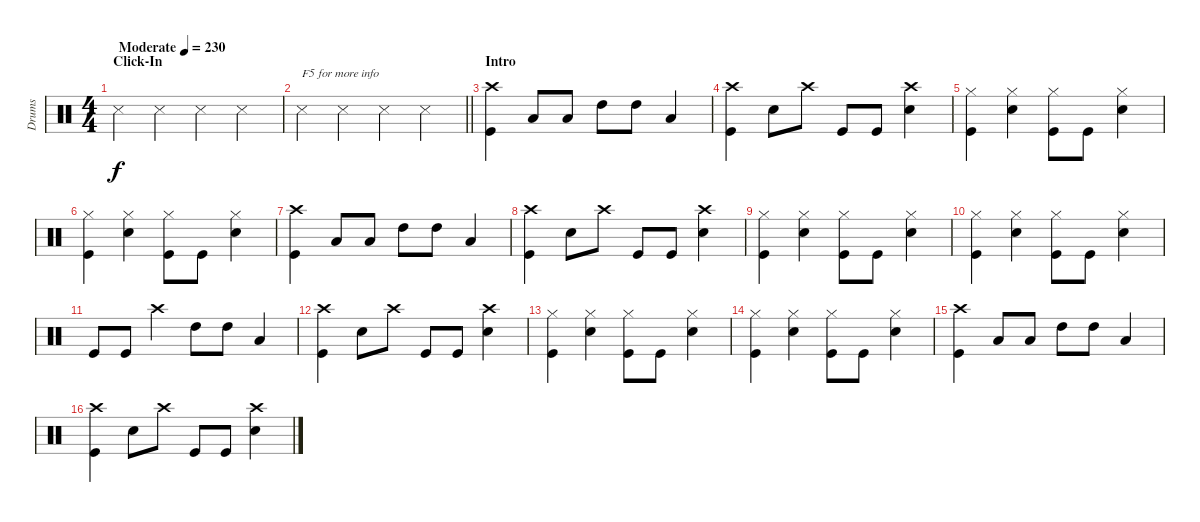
\track ("Drums" "Drums") {instrument percussion}
\staff {score}
\articulation defaults
\ts (4 4)
\section ("" "Click-In")
\tempo (230 "Moderate")
\clef neutral
\ks c "Snare (side stick) 3".4{dy f} "Snare (side stick) 3".4 "Snare (side stick) 3".4 "Snare (side stick) 3".4
|
\barLineRight lightlight "Snare (side stick) 3".4{txt "F5 for more info"} "Snare (side stick) 3".4 "Snare (side stick) 3".4 "Snare (side stick) 3".4
|
\section ("" "Intro")
("Crash high (hit)" "Kick (hit)").4 "Low Tom (hit)".8 "Low Tom (hit)".8 "High Tom (hit)".8 "High Tom (hit)".8 "Low Floor Tom (hit)".4 |
("Crash high (hit)" "Kick (hit)").4 "Snare (hit) 2".8 "Crash high (hit)".8 "Kick (hit)".8 "Kick (hit)".8 ("Crash high (hit)" "Snare (hit) 2").4 |
("Hi-Hat (closed)" "Kick (hit)").4 ("Hi-Hat (closed)" "Snare (hit) 2").4 ("Hi-Hat (closed)" "Kick (hit)").8 "Kick (hit)".8 ("Hi-Hat (closed)" "Snare (hit) 2").4 |
("Hi-Hat (closed)" "Kick (hit)").4 ("Hi-Hat (closed)" "Snare (hit) 2").4 ("Hi-Hat (closed)" "Kick (hit)").8 "Kick (hit)".8 ("Hi-Hat (closed)" "Snare (hit) 2").4 |
("Crash high (hit)" "Kick (hit)").4 "Low Tom (hit)".8 "Low Tom (hit)".8 "High Tom (hit)".8 "High Tom (hit)".8 "Low Floor Tom (hit)".4 |
("Crash high (hit)" "Kick (hit)").4 "Snare (hit) 2".8 "Crash high (hit)".8 "Kick (hit)".8 "Kick (hit)".8 ("Crash high (hit)" "Snare (hit) 2").4 |
("Hi-Hat (closed)" "Kick (hit)").4 ("Hi-Hat (closed)" "Snare (hit) 2").4 ("Hi-Hat (closed)" "Kick (hit)").8 "Kick (hit)".8 ("Hi-Hat (closed)" "Snare (hit) 2").4 |
("Hi-Hat (closed)" "Kick (hit)").4 ("Hi-Hat (closed)" "Snare (hit) 2").4 ("Hi-Hat (closed)" "Kick (hit)").8 "Kick (hit)".8 ("Hi-Hat (closed)" "Snare (hit) 2").4 |
"Kick (hit)".8 "Kick (hit)".8 "Crash high (hit)".4 "High Tom (hit)".8 "High Tom (hit)".8 "Low Floor Tom (hit)".4 |
("Crash high (hit)" "Kick (hit)").4 "Snare (hit) 2".8 "Crash high (hit)".8 "Kick (hit)".8 "Kick (hit)".8 ("Crash high (hit)" "Snare (hit) 2").4 |
("Hi-Hat (closed)" "Kick (hit)").4 ("Hi-Hat (closed)" "Snare (hit) 2").4 ("Hi-Hat (closed)" "Kick (hit)").8 "Kick (hit)".8 ("Hi-Hat (closed)" "Snare (hit) 2").4 |
("Hi-Hat (closed)" "Kick (hit)").4 ("Hi-Hat (closed)" "Snare (hit) 2").4 ("Hi-Hat (closed)" "Kick (hit)").8 "Kick (hit)".8 ("Hi-Hat (closed)" "Snare (hit) 2").4 |
("Crash high (hit)" "Kick (hit)").4 "Low Tom (hit)".8 "Low Tom (hit)".8 "High Tom (hit)".8 "High Tom (hit)".8 "Low Floor Tom (hit)".4 |
("Crash high (hit)" "Kick (hit)").4 "Snare (hit) 2".8 "Crash high (hit)".8 "Kick (hit)".8 "Kick (hit)".8 ("Crash high (hit)" "Snare (hit) 2").4
